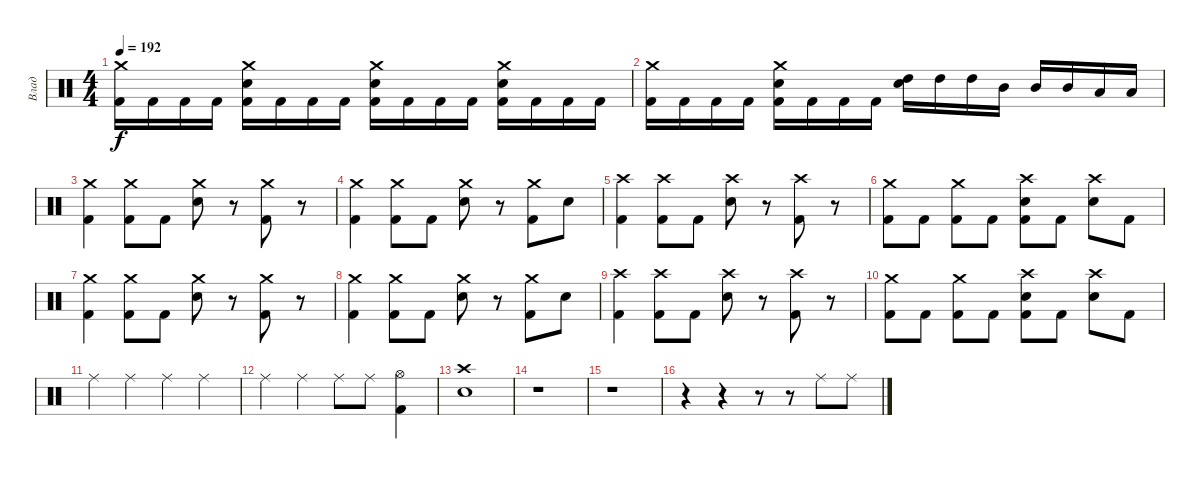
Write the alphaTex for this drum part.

\track ("Влад" "Влад") {instrument percussion}
\staff {score}
\articulation defaults
\ts (4 4)
\tempo 192
\clef neutral
\ks c
("Crash medium (hit)" "Kick (hit) 2").16{dy f} "Kick (hit) 2".16 "Kick (hit) 2".16 "Kick (hit) 2".16 ("Crash medium (hit)" "Kick (hit) 2" "Snare (hit) 2").16 "Kick (hit) 2".16 "Kick (hit) 2".16 "Kick (hit) 2".16 ("Crash medium (hit)" "Kick (hit) 2" "Snare (hit) 2").16 "Kick (hit) 2".16 "Kick (hit) 2".16 "Kick (hit) 2".16 ("Crash medium (hit)" "Kick (hit) 2" "Snare (hit) 2").16 "Kick (hit) 2".16 "Kick (hit) 2".16 "Kick (hit) 2".16 |
("Crash medium (hit)" "Kick (hit) 2").16 "Kick (hit) 2".16 "Kick (hit) 2".16 "Kick (hit) 2".16 ("Crash medium (hit)" "Kick (hit) 2" "Snare (hit) 2").16 "Kick (hit) 2".16 "Kick (hit) 2".16 "Kick (hit) 2".16 ("High Tom (hit)" "Snare (hit) 2").16 "High Tom (hit)".16 "High Tom (hit)".16 "Mid Tom (hit)".16 "Mid Tom (hit)".16 "Mid Tom (hit)".16 "Low Tom (hit)".16 "Low Tom (hit)".16 |
("Crash medium (hit)" "Kick (hit) 2").4 ("Crash medium (hit)" "Kick (hit) 2").8 "Kick (hit) 2".8 ("Crash medium (hit)" "Snare (hit) 2").8 r.8 ("Crash medium (hit)" "Kick (hit) 2").8 r.8 |
("Crash medium (hit)" "Kick (hit) 2").4 ("Crash medium (hit)" "Kick (hit) 2").8 "Kick (hit) 2".8 ("Crash medium (hit)" "Snare (hit) 2").8 r.8 ("Crash medium (hit)" "Kick (hit) 2").8 "Snare (hit) 2"{tr (38 16)}.8 |
("Crash high (hit)" "Kick (hit) 2").4 ("Crash high (hit)" "Kick (hit) 2").8 "Kick (hit) 2".8 ("Crash high (hit)" "Snare (hit) 2").8 r.8 ("Crash high (hit)" "Kick (hit) 2").8 r.8 |
("Crash medium (hit)" "Kick (hit) 2").8 "Kick (hit) 2".8 ("Crash medium (hit)" "Kick (hit) 2").8 "Kick (hit) 2".8 ("Crash high (hit)" "Kick (hit) 2" "Snare (hit) 2").8 "Kick (hit) 2".8 ("Crash high (hit)" "Snare (hit) 2").8 "Kick (hit) 2".8 |
("Crash medium (hit)" "Kick (hit) 2").4 ("Crash medium (hit)" "Kick (hit) 2").8 "Kick (hit) 2".8 ("Crash medium (hit)" "Snare (hit) 2").8 r.8 ("Crash medium (hit)" "Kick (hit) 2").8 r.8 |
("Crash medium (hit)" "Kick (hit) 2").4 ("Crash medium (hit)" "Kick (hit) 2").8 "Kick (hit) 2".8 ("Crash medium (hit)" "Snare (hit) 2").8 r.8 ("Crash medium (hit)" "Kick (hit) 2").8 "Snare (hit) 2"{tr (38 16)}.8 |
("Crash high (hit)" "Kick (hit) 2").4 ("Crash high (hit)" "Kick (hit) 2").8 "Kick (hit) 2".8 ("Crash high (hit)" "Snare (hit) 2").8 r.8 ("Crash high (hit)" "Kick (hit) 2").8 r.8 |
("Crash medium (hit)" "Kick (hit) 2").8 "Kick (hit) 2".8 ("Crash medium (hit)" "Kick (hit) 2").8 "Kick (hit) 2".8 ("Crash high (hit)" "Kick (hit) 2" "Snare (hit) 2").8 "Kick (hit) 2".8 ("Crash high (hit)" "Snare (hit) 2").8 "Kick (hit) 2".8 |
"Ride (middle)".4 "Ride (middle)".4 "Ride (middle)".4 "Ride (middle)".4 |
"Ride (middle)".4 "Ride (middle)".4 "Ride (middle)".8 "Ride (middle)".8 ("Hi-Hat (open)" "Kick (hit) 2").4 |
("Crash high (hit)" "Snare (hit) 2").1 |
r.1 |
r.1 |
r.4 r.4 r.8 r.8 "Ride (middle)".8 "Ride (middle)".8
